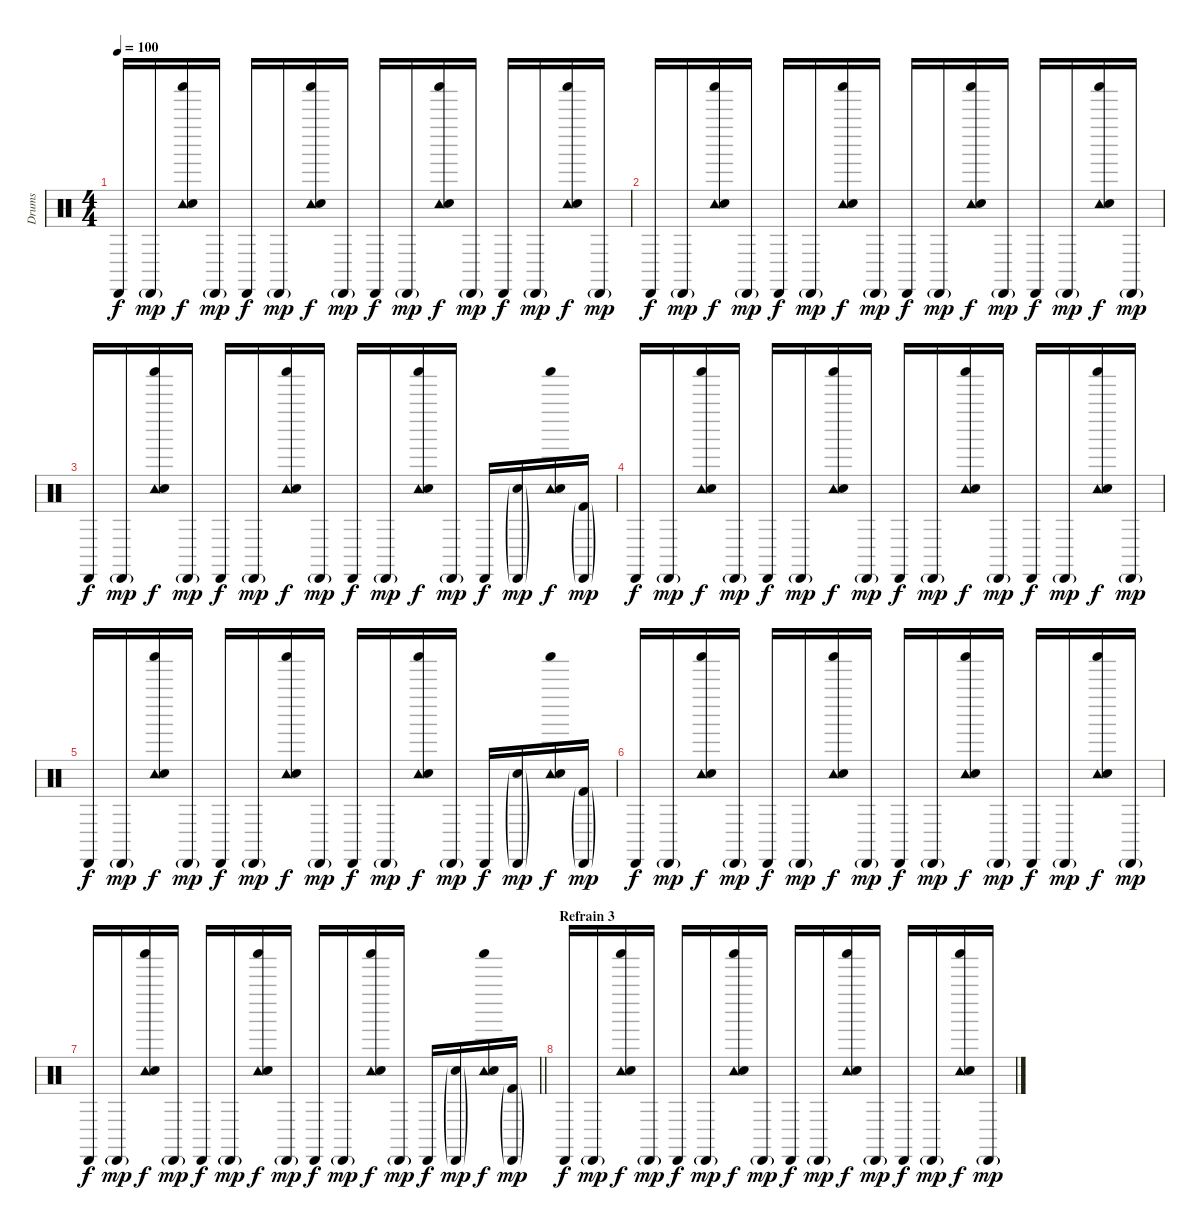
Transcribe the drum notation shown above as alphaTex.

\track ("Drums" "Drums") {instrument percussion}
\staff {score}
\articulation defaults
\ts (4 4)
\tempo 100
\clef neutral
\ks c "Cabasa (hit)".16{dy f} "Cabasa (hit)"{g}.16{dy mp}
("Tambourine (hit)" "Shaker (hit)" "Electric Snare (hit)").16{dy f} "Cabasa (hit)"{g}.16{dy mp} "Cabasa (hit)".16{dy f} "Cabasa (hit)"{g}.16{dy mp} ("Tambourine (hit)" "Shaker (hit)" "Electric Snare (hit)").16{dy f} "Cabasa (hit)"{g}.16{dy mp} "Cabasa (hit)".16{dy f} "Cabasa (hit)"{g}.16{dy mp} ("Tambourine (hit)" "Shaker (hit)" "Electric Snare (hit)").16{dy f} "Cabasa (hit)"{g}.16{dy mp} "Cabasa (hit)".16{dy f} "Cabasa (hit)"{g}.16{dy mp} ("Tambourine (hit)" "Shaker (hit)" "Electric Snare (hit)").16{dy f} "Cabasa (hit)"{g}.16{dy mp} |
"Cabasa (hit)".16{dy f} "Cabasa (hit)"{g}.16{dy mp} ("Tambourine (hit)" "Shaker (hit)" "Electric Snare (hit)").16{dy f} "Cabasa (hit)"{g}.16{dy mp} "Cabasa (hit)".16{dy f} "Cabasa (hit)"{g}.16{dy mp} ("Tambourine (hit)" "Shaker (hit)" "Electric Snare (hit)").16{dy f} "Cabasa (hit)"{g}.16{dy mp} "Cabasa (hit)".16{dy f} "Cabasa (hit)"{g}.16{dy mp} ("Tambourine (hit)" "Shaker (hit)" "Electric Snare (hit)").16{dy f} "Cabasa (hit)"{g}.16{dy mp} "Cabasa (hit)".16{dy f} "Cabasa (hit)"{g}.16{dy mp} ("Tambourine (hit)" "Shaker (hit)" "Electric Snare (hit)").16{dy f} "Cabasa (hit)"{g}.16{dy mp} |
"Cabasa (hit)".16{dy f} "Cabasa (hit)"{g}.16{dy mp} ("Tambourine (hit)" "Shaker (hit)" "Electric Snare (hit)").16{dy f} "Cabasa (hit)"{g}.16{dy mp} "Cabasa (hit)".16{dy f} "Cabasa (hit)"{g}.16{dy mp} ("Tambourine (hit)" "Shaker (hit)" "Electric Snare (hit)").16{dy f} "Cabasa (hit)"{g}.16{dy mp} "Cabasa (hit)".16{dy f} "Cabasa (hit)"{g}.16{dy mp} ("Tambourine (hit)" "Shaker (hit)" "Electric Snare (hit)").16{dy f} "Cabasa (hit)"{g}.16{dy mp} "Cabasa (hit)".16{dy f} ("Cabasa (hit)"{g} "Electric Snare (hit)"{g}).16{dy mp} ("Tambourine (hit)" "Shaker (hit)" "Electric Snare (hit)").16{dy f} ("Cabasa (hit)"{g} "Kick (hit) 2"{g}).16{dy mp} |
"Cabasa (hit)".16{dy f} "Cabasa (hit)"{g}.16{dy mp} ("Tambourine (hit)" "Shaker (hit)" "Electric Snare (hit)").16{dy f} "Cabasa (hit)"{g}.16{dy mp} "Cabasa (hit)".16{dy f} "Cabasa (hit)"{g}.16{dy mp} ("Tambourine (hit)" "Shaker (hit)" "Electric Snare (hit)").16{dy f} "Cabasa (hit)"{g}.16{dy mp} "Cabasa (hit)".16{dy f} "Cabasa (hit)"{g}.16{dy mp} ("Tambourine (hit)" "Shaker (hit)" "Electric Snare (hit)").16{dy f} "Cabasa (hit)"{g}.16{dy mp} "Cabasa (hit)".16{dy f} "Cabasa (hit)"{g}.16{dy mp} ("Tambourine (hit)" "Shaker (hit)" "Electric Snare (hit)").16{dy f} "Cabasa (hit)"{g}.16{dy mp} |
"Cabasa (hit)".16{dy f} "Cabasa (hit)"{g}.16{dy mp} ("Tambourine (hit)" "Shaker (hit)" "Electric Snare (hit)").16{dy f} "Cabasa (hit)"{g}.16{dy mp} "Cabasa (hit)".16{dy f} "Cabasa (hit)"{g}.16{dy mp} ("Tambourine (hit)" "Shaker (hit)" "Electric Snare (hit)").16{dy f} "Cabasa (hit)"{g}.16{dy mp} "Cabasa (hit)".16{dy f} "Cabasa (hit)"{g}.16{dy mp} ("Tambourine (hit)" "Shaker (hit)" "Electric Snare (hit)").16{dy f} "Cabasa (hit)"{g}.16{dy mp} "Cabasa (hit)".16{dy f} ("Cabasa (hit)"{g} "Electric Snare (hit)"{g}).16{dy mp} ("Tambourine (hit)" "Shaker (hit)" "Electric Snare (hit)").16{dy f} ("Cabasa (hit)"{g} "Kick (hit) 2"{g}).16{dy mp} |
"Cabasa (hit)".16{dy f} "Cabasa (hit)"{g}.16{dy mp} ("Tambourine (hit)" "Shaker (hit)" "Electric Snare (hit)").16{dy f} "Cabasa (hit)"{g}.16{dy mp} "Cabasa (hit)".16{dy f} "Cabasa (hit)"{g}.16{dy mp} ("Tambourine (hit)" "Shaker (hit)" "Electric Snare (hit)").16{dy f} "Cabasa (hit)"{g}.16{dy mp} "Cabasa (hit)".16{dy f} "Cabasa (hit)"{g}.16{dy mp} ("Tambourine (hit)" "Shaker (hit)" "Electric Snare (hit)").16{dy f} "Cabasa (hit)"{g}.16{dy mp} "Cabasa (hit)".16{dy f} "Cabasa (hit)"{g}.16{dy mp} ("Tambourine (hit)" "Shaker (hit)" "Electric Snare (hit)").16{dy f} "Cabasa (hit)"{g}.16{dy mp} |
\barLineRight lightlight "Cabasa (hit)".16{dy f} "Cabasa (hit)"{g}.16{dy mp}
("Tambourine (hit)" "Shaker (hit)" "Electric Snare (hit)").16{dy f} "Cabasa (hit)"{g}.16{dy mp} "Cabasa (hit)".16{dy f} "Cabasa (hit)"{g}.16{dy mp} ("Tambourine (hit)" "Shaker (hit)" "Electric Snare (hit)").16{dy f} "Cabasa (hit)"{g}.16{dy mp} "Cabasa (hit)".16{dy f} "Cabasa (hit)"{g}.16{dy mp} ("Tambourine (hit)" "Shaker (hit)" "Electric Snare (hit)").16{dy f} "Cabasa (hit)"{g}.16{dy mp} "Cabasa (hit)".16{dy f} ("Cabasa (hit)"{g} "Electric Snare (hit)"{g}).16{dy mp} ("Tambourine (hit)" "Shaker (hit)" "Electric Snare (hit)").16{dy f} ("Cabasa (hit)"{g} "Kick (hit) 2"{g}).16{dy mp} |
\section ("" "Refrain 3")
"Cabasa (hit)".16{dy f} "Cabasa (hit)"{g}.16{dy mp} ("Tambourine (hit)" "Shaker (hit)" "Electric Snare (hit)").16{dy f} "Cabasa (hit)"{g}.16{dy mp} "Cabasa (hit)".16{dy f} "Cabasa (hit)"{g}.16{dy mp} ("Tambourine (hit)" "Shaker (hit)" "Electric Snare (hit)").16{dy f} "Cabasa (hit)"{g}.16{dy mp} "Cabasa (hit)".16{dy f} "Cabasa (hit)"{g}.16{dy mp} ("Tambourine (hit)" "Shaker (hit)" "Electric Snare (hit)").16{dy f} "Cabasa (hit)"{g}.16{dy mp} "Cabasa (hit)".16{dy f} "Cabasa (hit)"{g}.16{dy mp} ("Tambourine (hit)" "Shaker (hit)" "Electric Snare (hit)").16{dy f} "Cabasa (hit)"{g}.16{dy mp}
